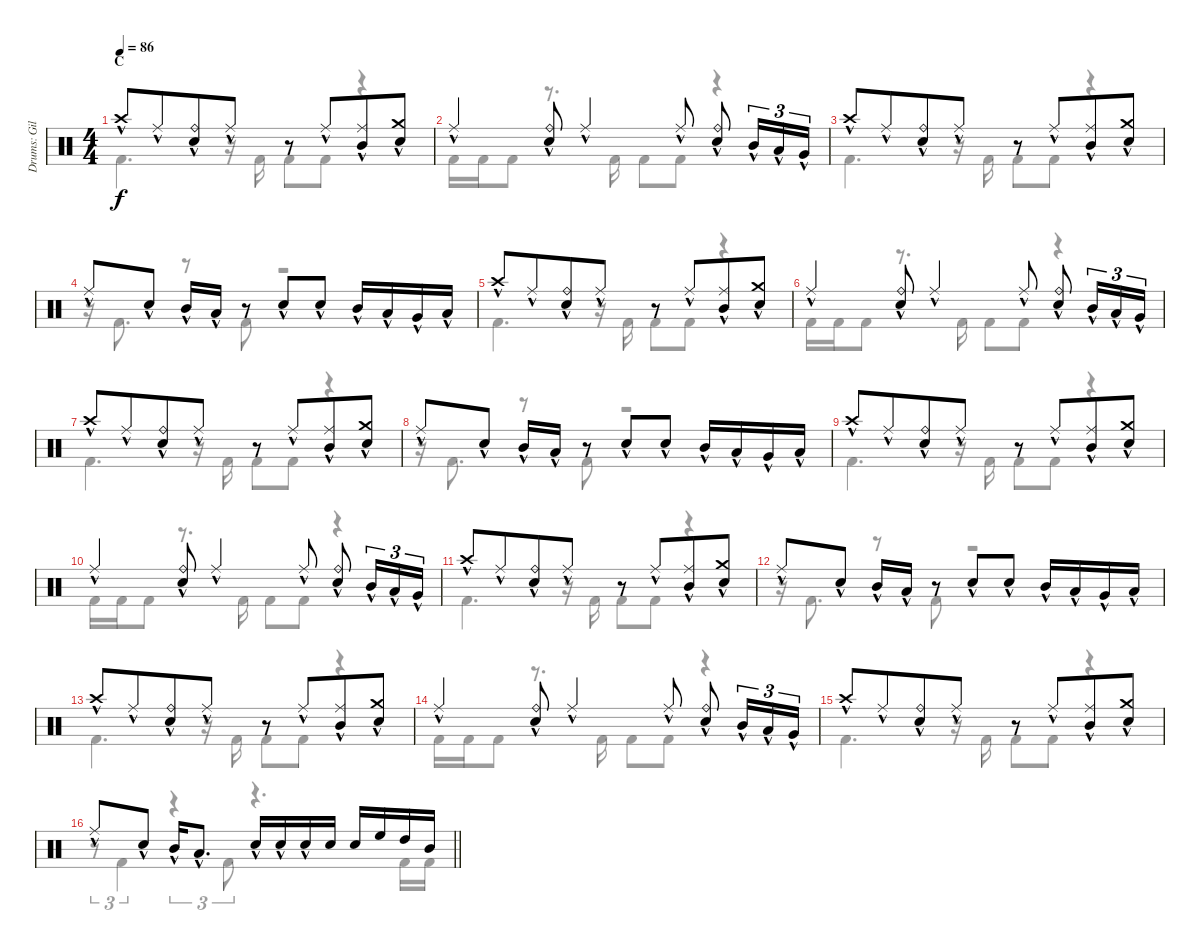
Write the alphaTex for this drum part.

\track ("Drums: Gil" "Drums: Gil") {instrument percussion}
\staff {score}
\articulation defaults
\voice
\ts (4 4)
\section ("" "C")
\tempo 86
\clef neutral
\ks c "Crash high (hit)"{hac}.8{dy f beam merge} "Ride (middle)"{hac}.8{beam merge}
("Ride (bell)"{hac} "Snare (hit) 2"{hac}).8{beam merge} "Ride (middle)"{hac}.8 r.8 "Ride (middle)"{hac}.8{beam merge} ("Ride (middle)"{hac} "Mid Tom (hit)"{hac}).8{beam merge} ("Crash medium (hit)"{hac} "Snare (hit) 2"{hac}).8 |
"Ride (middle)"{hac}.4 ("Ride (bell)"{hac} "Snare (hit) 2"{hac}).8 "Ride (middle)"{hac}.4 "Ride (middle)"{hac}.8 ("Ride (bell)"{hac} "Snare (hit) 2"{hac}).8 "Mid Tom (hit)"{hac}.16{tu (3 2)} "Low Tom (hit)"{hac}.16{tu (3 2)} "Very Low Tom (hit)"{hac}.16{tu (3 2)} |
"Crash high (hit)"{hac}.8{beam merge} "Ride (middle)"{hac}.8{beam merge} ("Ride (bell)"{hac} "Snare (hit) 2"{hac}).8{beam merge} "Ride (middle)"{hac}.8 r.8 "Ride (middle)"{hac}.8{beam merge} ("Ride (middle)"{hac} "Mid Tom (hit)"{hac}).8{beam merge} ("Crash medium (hit)"{hac} "Snare (hit) 2"{hac}).8 |
"Ride (middle)"{hac}.8 "Snare (hit) 2"{hac}.8 "Mid Tom (hit)"{hac}.16 "Low Tom (hit)"{hac}.16 r.8 "Snare (hit) 2"{hac}.8 "Snare (hit) 2"{hac}.8 "Mid Tom (hit)"{hac}.16 "Low Tom (hit)"{hac}.16 "Very Low Tom (hit)"{hac}.16 "Low Floor Tom (hit)"{hac}.16 |
"Crash high (hit)"{hac}.8{beam merge} "Ride (middle)"{hac}.8{beam merge} ("Ride (bell)"{hac} "Snare (hit) 2"{hac}).8{beam merge} "Ride (middle)"{hac}.8 r.8 "Ride (middle)"{hac}.8{beam merge} ("Ride (middle)"{hac} "Mid Tom (hit)"{hac}).8{beam merge} ("Crash medium (hit)"{hac} "Snare (hit) 2"{hac}).8 |
"Ride (middle)"{hac}.4 ("Ride (bell)"{hac} "Snare (hit) 2"{hac}).8 "Ride (middle)"{hac}.4 "Ride (middle)"{hac}.8 ("Ride (bell)"{hac} "Snare (hit) 2"{hac}).8 "Mid Tom (hit)"{hac}.16{tu (3 2)} "Low Tom (hit)"{hac}.16{tu (3 2)} "Very Low Tom (hit)"{hac}.16{tu (3 2)} |
"Crash high (hit)"{hac}.8{beam merge} "Ride (middle)"{hac}.8{beam merge} ("Ride (bell)"{hac} "Snare (hit) 2"{hac}).8{beam merge} "Ride (middle)"{hac}.8 r.8 "Ride (middle)"{hac}.8{beam merge} ("Ride (middle)"{hac} "Mid Tom (hit)"{hac}).8{beam merge} ("Crash medium (hit)"{hac} "Snare (hit) 2"{hac}).8 |
"Ride (middle)"{hac}.8 "Snare (hit) 2"{hac}.8 "Mid Tom (hit)"{hac}.16 "Low Tom (hit)"{hac}.16 r.8 "Snare (hit) 2"{hac}.8 "Snare (hit) 2"{hac}.8 "Mid Tom (hit)"{hac}.16 "Low Tom (hit)"{hac}.16 "Very Low Tom (hit)"{hac}.16 "Low Floor Tom (hit)"{hac}.16 |
"Crash high (hit)"{hac}.8{beam merge} "Ride (middle)"{hac}.8{beam merge} ("Ride (bell)"{hac} "Snare (hit) 2"{hac}).8{beam merge} "Ride (middle)"{hac}.8 r.8 "Ride (middle)"{hac}.8{beam merge} ("Ride (middle)"{hac} "Mid Tom (hit)"{hac}).8{beam merge} ("Crash medium (hit)"{hac} "Snare (hit) 2"{hac}).8 |
"Ride (middle)"{hac}.4 ("Ride (bell)"{hac} "Snare (hit) 2"{hac}).8 "Ride (middle)"{hac}.4 "Ride (middle)"{hac}.8 ("Ride (bell)"{hac} "Snare (hit) 2"{hac}).8 "Mid Tom (hit)"{hac}.16{tu (3 2)} "Low Tom (hit)"{hac}.16{tu (3 2)} "Very Low Tom (hit)"{hac}.16{tu (3 2)} |
"Crash high (hit)"{hac}.8{beam merge} "Ride (middle)"{hac}.8{beam merge} ("Ride (bell)"{hac} "Snare (hit) 2"{hac}).8{beam merge} "Ride (middle)"{hac}.8 r.8 "Ride (middle)"{hac}.8{beam merge} ("Ride (middle)"{hac} "Mid Tom (hit)"{hac}).8{beam merge} ("Crash medium (hit)"{hac} "Snare (hit) 2"{hac}).8 |
"Ride (middle)"{hac}.8 "Snare (hit) 2"{hac}.8 "Mid Tom (hit)"{hac}.16 "Low Tom (hit)"{hac}.16 r.8 "Snare (hit) 2"{hac}.8 "Snare (hit) 2"{hac}.8 "Mid Tom (hit)"{hac}.16 "Low Tom (hit)"{hac}.16 "Very Low Tom (hit)"{hac}.16 "Low Floor Tom (hit)"{hac}.16 |
"Crash high (hit)"{hac}.8{beam merge} "Ride (middle)"{hac}.8{beam merge} ("Ride (bell)"{hac} "Snare (hit) 2"{hac}).8{beam merge} "Ride (middle)"{hac}.8 r.8 "Ride (middle)"{hac}.8{beam merge} ("Ride (middle)"{hac} "Mid Tom (hit)"{hac}).8{beam merge} ("Crash medium (hit)"{hac} "Snare (hit) 2"{hac}).8 |
"Ride (middle)"{hac}.4 ("Ride (bell)"{hac} "Snare (hit) 2"{hac}).8 "Ride (middle)"{hac}.4 "Ride (middle)"{hac}.8 ("Ride (bell)"{hac} "Snare (hit) 2"{hac}).8 "Mid Tom (hit)"{hac}.16{tu (3 2)} "Low Tom (hit)"{hac}.16{tu (3 2)} "Very Low Tom (hit)"{hac}.16{tu (3 2)} |
"Crash high (hit)"{hac}.8{beam merge} "Ride (middle)"{hac}.8{beam merge} ("Ride (bell)"{hac} "Snare (hit) 2"{hac}).8{beam merge} "Ride (middle)"{hac}.8 r.8 "Ride (middle)"{hac}.8{beam merge} ("Ride (middle)"{hac} "Mid Tom (hit)"{hac}).8{beam merge} ("Crash medium (hit)"{hac} "Snare (hit) 2"{hac}).8 |
\barLineRight lightlight "Ride (middle)"{hac}.8 "Snare (hit) 2"{hac}.8 "Mid Tom (hit)"{hac}.16 "Low Tom (hit)"{hac}.8{d} "Snare (hit) 2"{hac}.16 "Snare (hit) 2"{hac}.16 "Snare (hit) 2"{hac}.16 "Snare (hit) 2".16 "Snare (hit) 2".16 "High Floor Tom (hit)".16 "High Tom (hit)".16 "Mid Tom (hit)".16
\voice
\clef neutral
\ottava regular
\simile none
\ks c "Kick (hit) 2".4{d dy f}
r.16 "Kick (hit) 2".16 "Kick (hit) 2".8 "Kick (hit) 2".8 r.4 |
"Kick (hit) 2".16 "Kick (hit) 2".16 "Kick (hit) 2".8 r.8{d} "Kick (hit) 2".16 "Kick (hit) 2".8 "Kick (hit) 2".8 r.4 |
"Kick (hit) 2".4{d} r.16 "Kick (hit) 2".16 "Kick (hit) 2".8 "Kick (hit) 2".8 r.4 |
r.16 "Kick (hit) 2".8{d} r.8 "Kick (hit) 2".8 r.2 |
"Kick (hit) 2".4{d} r.16 "Kick (hit) 2".16 "Kick (hit) 2".8 "Kick (hit) 2".8 r.4 |
"Kick (hit) 2".16 "Kick (hit) 2".16 "Kick (hit) 2".8 r.8{d} "Kick (hit) 2".16 "Kick (hit) 2".8 "Kick (hit) 2".8 r.4 |
"Kick (hit) 2".4{d} r.16 "Kick (hit) 2".16 "Kick (hit) 2".8 "Kick (hit) 2".8 r.4 |
r.16 "Kick (hit) 2".8{d} r.8 "Kick (hit) 2".8 r.2 |
"Kick (hit) 2".4{d} r.16 "Kick (hit) 2".16 "Kick (hit) 2".8 "Kick (hit) 2".8 r.4 |
"Kick (hit) 2".16 "Kick (hit) 2".16 "Kick (hit) 2".8 r.8{d} "Kick (hit) 2".16 "Kick (hit) 2".8 "Kick (hit) 2".8 r.4 |
"Kick (hit) 2".4{d} r.16 "Kick (hit) 2".16 "Kick (hit) 2".8 "Kick (hit) 2".8 r.4 |
r.16 "Kick (hit) 2".8{d} r.8 "Kick (hit) 2".8 r.2 |
"Kick (hit) 2".4{d} r.16 "Kick (hit) 2".16 "Kick (hit) 2".8 "Kick (hit) 2".8 r.4 |
"Kick (hit) 2".16 "Kick (hit) 2".16 "Kick (hit) 2".8 r.8{d} "Kick (hit) 2".16 "Kick (hit) 2".8 "Kick (hit) 2".8 r.4 |
"Kick (hit) 2".4{d} r.16 "Kick (hit) 2".16 "Kick (hit) 2".8 "Kick (hit) 2".8 r.4 |
\barLineRight lightlight
r.8{tu (3 2)} "Kick (hit) 2".4{tu (3 2)} r.4{tu (3 2)} "Kick (hit) 2".8{tu (3 2)} r.4{d} "Kick (hit) 2".16 "Kick (hit) 2".16
